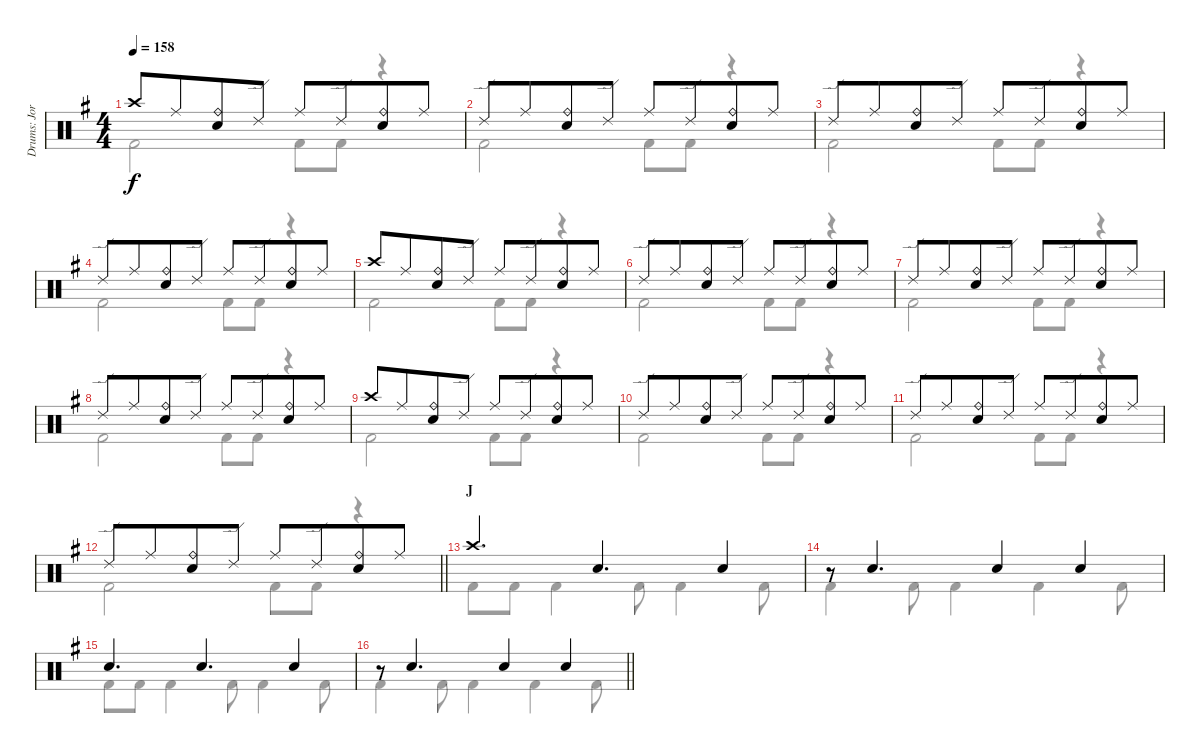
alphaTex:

\track ("Drums: Jorg" "Drums: Jor") {instrument percussion}
\staff {score}
\articulation defaults
\voice
\ts (4 4)
\tempo 158
\clef neutral
\ks g "Crash high (hit)".8{dy f} "Ride (middle)".8{beam merge}
("Ride (bell)" "Snare (hit) 2").8 "Ride (edge) 2".8 "Ride (middle)".8 "Ride (edge) 2".8{beam merge} ("Ride (bell)" "Snare (hit) 2").8 "Ride (middle)".8 |
"Ride (edge) 2".8 "Ride (middle)".8{beam merge} ("Ride (bell)" "Snare (hit) 2").8 "Ride (edge) 2".8 "Ride (middle)".8 "Ride (edge) 2".8{beam merge} ("Ride (bell)" "Snare (hit) 2").8 "Ride (middle)".8 |
"Ride (edge) 2".8 "Ride (middle)".8{beam merge} ("Ride (bell)" "Snare (hit) 2").8 "Ride (edge) 2".8 "Ride (middle)".8 "Ride (edge) 2".8{beam merge} ("Ride (bell)" "Snare (hit) 2").8 "Ride (middle)".8 |
"Ride (edge) 2".8 "Ride (middle)".8{beam merge} ("Ride (bell)" "Snare (hit) 2").8 "Ride (edge) 2".8 "Ride (middle)".8 "Ride (edge) 2".8{beam merge} ("Ride (bell)" "Snare (hit) 2").8 "Ride (middle)".8 |
"Crash high (hit)".8 "Ride (middle)".8{beam merge} ("Ride (bell)" "Snare (hit) 2").8 "Ride (edge) 2".8 "Ride (middle)".8 "Ride (edge) 2".8{beam merge} ("Ride (bell)" "Snare (hit) 2").8 "Ride (middle)".8 |
"Ride (edge) 2".8 "Ride (middle)".8{beam merge} ("Ride (bell)" "Snare (hit) 2").8 "Ride (edge) 2".8 "Ride (middle)".8 "Ride (edge) 2".8{beam merge} ("Ride (bell)" "Snare (hit) 2").8 "Ride (middle)".8 |
"Ride (edge) 2".8 "Ride (middle)".8{beam merge} ("Ride (bell)" "Snare (hit) 2").8 "Ride (edge) 2".8 "Ride (middle)".8 "Ride (edge) 2".8{beam merge} ("Ride (bell)" "Snare (hit) 2").8 "Ride (middle)".8 |
"Ride (edge) 2".8 "Ride (middle)".8{beam merge} ("Ride (bell)" "Snare (hit) 2").8 "Ride (edge) 2".8 "Ride (middle)".8 "Ride (edge) 2".8{beam merge} ("Ride (bell)" "Snare (hit) 2").8 "Ride (middle)".8 |
"Crash high (hit)".8 "Ride (middle)".8{beam merge} ("Ride (bell)" "Snare (hit) 2").8 "Ride (edge) 2".8 "Ride (middle)".8 "Ride (edge) 2".8{beam merge} ("Ride (bell)" "Snare (hit) 2").8 "Ride (middle)".8 |
"Ride (edge) 2".8 "Ride (middle)".8{beam merge} ("Ride (bell)" "Snare (hit) 2").8 "Ride (edge) 2".8 "Ride (middle)".8 "Ride (edge) 2".8{beam merge} ("Ride (bell)" "Snare (hit) 2").8 "Ride (middle)".8 |
"Ride (edge) 2".8 "Ride (middle)".8{beam merge} ("Ride (bell)" "Snare (hit) 2").8 "Ride (edge) 2".8 "Ride (middle)".8 "Ride (edge) 2".8{beam merge} ("Ride (bell)" "Snare (hit) 2").8 "Ride (middle)".8 |
\barLineRight lightlight "Ride (edge) 2".8 "Ride (middle)".8{beam merge}
("Ride (bell)" "Snare (hit) 2").8 "Ride (edge) 2".8 "Ride (middle)".8 "Ride (edge) 2".8{beam merge} ("Ride (bell)" "Snare (hit) 2").8 "Ride (middle)".8 |
\section ("" "J")
"Crash high (hit)".4{d} "Snare (hit) 2".4{d} "Snare (hit) 2".4 |
r.8 "Snare (hit) 2".4{d} "Snare (hit) 2".4 "Snare (hit) 2".4 |
"Snare (hit) 2".4{d} "Snare (hit) 2".4{d} "Snare (hit) 2".4 |
\barLineRight lightlight
r.8 "Snare (hit) 2".4{d} "Snare (hit) 2".4 "Snare (hit) 2".4
\voice
\clef neutral
\ottava regular
\simile none
\ks g "Kick (hit) 2".2{dy f} "Kick (hit) 2".8 "Kick (hit) 2".8
r.4 |
"Kick (hit) 2".2 "Kick (hit) 2".8 "Kick (hit) 2".8 r.4 |
"Kick (hit) 2".2 "Kick (hit) 2".8 "Kick (hit) 2".8 r.4 |
"Kick (hit) 2".2 "Kick (hit) 2".8 "Kick (hit) 2".8 r.4 |
"Kick (hit) 2".2 "Kick (hit) 2".8 "Kick (hit) 2".8 r.4 |
"Kick (hit) 2".2 "Kick (hit) 2".8 "Kick (hit) 2".8 r.4 |
"Kick (hit) 2".2 "Kick (hit) 2".8 "Kick (hit) 2".8 r.4 |
"Kick (hit) 2".2 "Kick (hit) 2".8 "Kick (hit) 2".8 r.4 |
"Kick (hit) 2".2 "Kick (hit) 2".8 "Kick (hit) 2".8 r.4 |
"Kick (hit) 2".2 "Kick (hit) 2".8 "Kick (hit) 2".8 r.4 |
"Kick (hit) 2".2 "Kick (hit) 2".8 "Kick (hit) 2".8 r.4 |
\barLineRight lightlight "Kick (hit) 2".2 "Kick (hit) 2".8 "Kick (hit) 2".8
r.4 |
"Kick (hit) 2".8 "Kick (hit) 2".8 "Kick (hit) 2".4 "Kick (hit) 2".8 "Kick (hit) 2".4 "Kick (hit) 2".8 |
"Kick (hit) 2".4 "Kick (hit) 2".8 "Kick (hit) 2".4 "Kick (hit) 2".4 "Kick (hit) 2".8 |
"Kick (hit) 2".8 "Kick (hit) 2".8 "Kick (hit) 2".4 "Kick (hit) 2".8 "Kick (hit) 2".4 "Kick (hit) 2".8 |
\barLineRight lightlight "Kick (hit) 2".4 "Kick (hit) 2".8 "Kick (hit) 2".4 "Kick (hit) 2".4 "Kick (hit) 2".8
